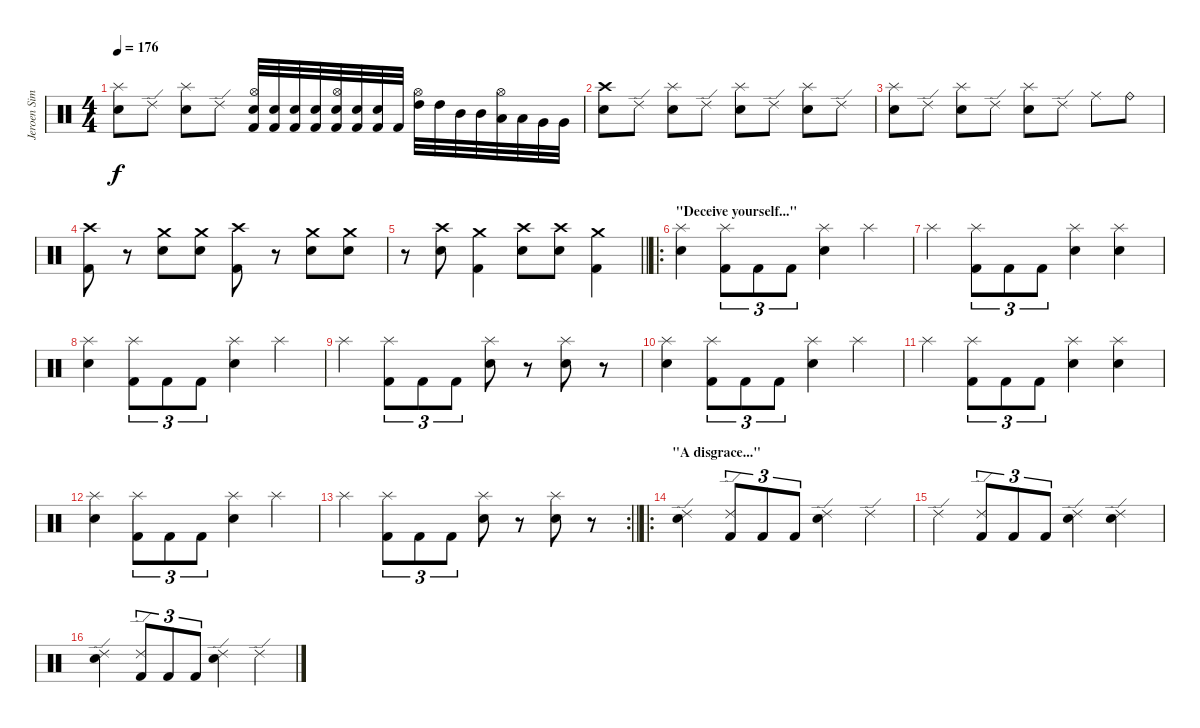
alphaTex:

\track ("Jeroen Simons" "Jeroen Sim") {instrument percussion}
\staff {score}
\articulation defaults
\ts (4 4)
\tempo 176
\clef neutral
\ks c
("Splash (hit)" "Electric Snare (hit)").8{dy f} "Ride (edge) 2".8 ("Splash (hit)" "Electric Snare (hit)").8 "Ride (edge) 2".8 ("Hi-Hat (open)" "Electric Snare (hit)" "Kick (hit) 2").32 ("Electric Snare (hit)" "Kick (hit) 2").32 ("Electric Snare (hit)" "Kick (hit) 2").32 ("Electric Snare (hit)" "Kick (hit) 2").32 ("Hi-Hat (open)" "Electric Snare (hit)" "Kick (hit) 2").32 ("Electric Snare (hit)" "Kick (hit) 2").32 ("Electric Snare (hit)" "Kick (hit) 2").32 "Kick (hit) 2".32 ("Hi-Hat (open)" "High Tom (hit)").32 "High Tom (hit)".32 "Mid Tom (hit)".32 "Mid Tom (hit)".32 ("Hi-Hat (open)" "Low Tom (hit)").32 "Low Tom (hit)".32 "Very Low Tom (hit)".32 "Very Low Tom (hit)".32 |
("Crash high (hit)" "Electric Snare (hit)").8 "Ride (edge) 2".8 ("Splash (hit)" "Electric Snare (hit)").8 "Ride (edge) 2".8 ("Splash (hit)" "Electric Snare (hit)").8 "Ride (edge) 2".8 ("Splash (hit)" "Electric Snare (hit)").8 "Ride (edge) 2".8 |
("Splash (hit)" "Electric Snare (hit)").8 "Ride (edge) 2".8 ("Splash (hit)" "Electric Snare (hit)").8 "Ride (edge) 2".8 ("Splash (hit)" "Electric Snare (hit)").8 "Ride (edge) 2".8 "Ride (middle)".8 "Ride (bell)".8 |
("Crash high (hit)" "Kick (hit) 2").8 r.8 ("Crash medium (hit)" "Electric Snare (hit)").8 ("Crash medium (hit)" "Electric Snare (hit)").8 ("Crash high (hit)" "Kick (hit) 2").8 r.8 ("Crash medium (hit)" "Electric Snare (hit)").8 ("Crash medium (hit)" "Electric Snare (hit)").8 |
\barLineRight lightlight
r.8 ("Crash high (hit)" "Electric Snare (hit)").8 ("Crash medium (hit)" "Kick (hit) 2").4 ("Crash high (hit)" "Electric Snare (hit)").8 ("Crash high (hit)" "Electric Snare (hit)").8 ("Crash medium (hit)" "Kick (hit) 2").4 |
\ro
\section ("" "\"Deceive yourself...\"")
("Splash (hit)" "Electric Snare (hit)").4 ("Splash (hit)" "Kick (hit) 2").8{tu (3 2)} "Kick (hit) 2".8{tu (3 2)} "Kick (hit) 2".8{tu (3 2)} ("Splash (hit)" "Electric Snare (hit)").4 "Splash (hit)".4 |
"Splash (hit)".4 ("Splash (hit)" "Kick (hit) 2").8{tu (3 2)} "Kick (hit) 2".8{tu (3 2)} "Kick (hit) 2".8{tu (3 2)} ("Splash (hit)" "Electric Snare (hit)").4 ("Splash (hit)" "Electric Snare (hit)").4 |
("Splash (hit)" "Electric Snare (hit)").4 ("Splash (hit)" "Kick (hit) 2").8{tu (3 2)} "Kick (hit) 2".8{tu (3 2)} "Kick (hit) 2".8{tu (3 2)} ("Splash (hit)" "Electric Snare (hit)").4 "Splash (hit)".4 |
"Splash (hit)".4 ("Splash (hit)" "Kick (hit) 2").8{tu (3 2)} "Kick (hit) 2".8{tu (3 2)} "Kick (hit) 2".8{tu (3 2)} ("Splash (hit)" "Electric Snare (hit)").8 r.8 ("Splash (hit)" "Electric Snare (hit)").8 r.8 |
("Splash (hit)" "Electric Snare (hit)").4 ("Splash (hit)" "Kick (hit) 2").8{tu (3 2)} "Kick (hit) 2".8{tu (3 2)} "Kick (hit) 2".8{tu (3 2)} ("Splash (hit)" "Electric Snare (hit)").4 "Splash (hit)".4 |
"Splash (hit)".4 ("Splash (hit)" "Kick (hit) 2").8{tu (3 2)} "Kick (hit) 2".8{tu (3 2)} "Kick (hit) 2".8{tu (3 2)} ("Splash (hit)" "Electric Snare (hit)").4 ("Splash (hit)" "Electric Snare (hit)").4 |
("Splash (hit)" "Electric Snare (hit)").4 ("Splash (hit)" "Kick (hit) 2").8{tu (3 2)} "Kick (hit) 2".8{tu (3 2)} "Kick (hit) 2".8{tu (3 2)} ("Splash (hit)" "Electric Snare (hit)").4 "Splash (hit)".4 |
\rc 2
\barLineRight lightlight "Splash (hit)".4
("Splash (hit)" "Kick (hit) 2").8{tu (3 2)} "Kick (hit) 2".8{tu (3 2)} "Kick (hit) 2".8{tu (3 2)} ("Splash (hit)" "Electric Snare (hit)").8 r.8 ("Splash (hit)" "Electric Snare (hit)").8 r.8 |
\ro
\section ("" "\"A disgrace...\"")
("Ride (edge) 2" "Electric Snare (hit)").4 ("Ride (edge) 2" "Kick (hit) 2").8{tu (3 2)} "Kick (hit) 2".8{tu (3 2)} "Kick (hit) 2".8{tu (3 2)} ("Ride (edge) 2" "Electric Snare (hit)").4 "Ride (edge) 2".4 |
"Ride (edge) 2".4 ("Ride (edge) 2" "Kick (hit) 2").8{tu (3 2)} "Kick (hit) 2".8{tu (3 2)} "Kick (hit) 2".8{tu (3 2)} ("Ride (edge) 2" "Electric Snare (hit)").4 ("Ride (edge) 2" "Electric Snare (hit)").4 |
("Ride (edge) 2" "Electric Snare (hit)").4 ("Ride (edge) 2" "Kick (hit) 2").8{tu (3 2)} "Kick (hit) 2".8{tu (3 2)} "Kick (hit) 2".8{tu (3 2)} ("Ride (edge) 2" "Electric Snare (hit)").4 "Ride (edge) 2".4
